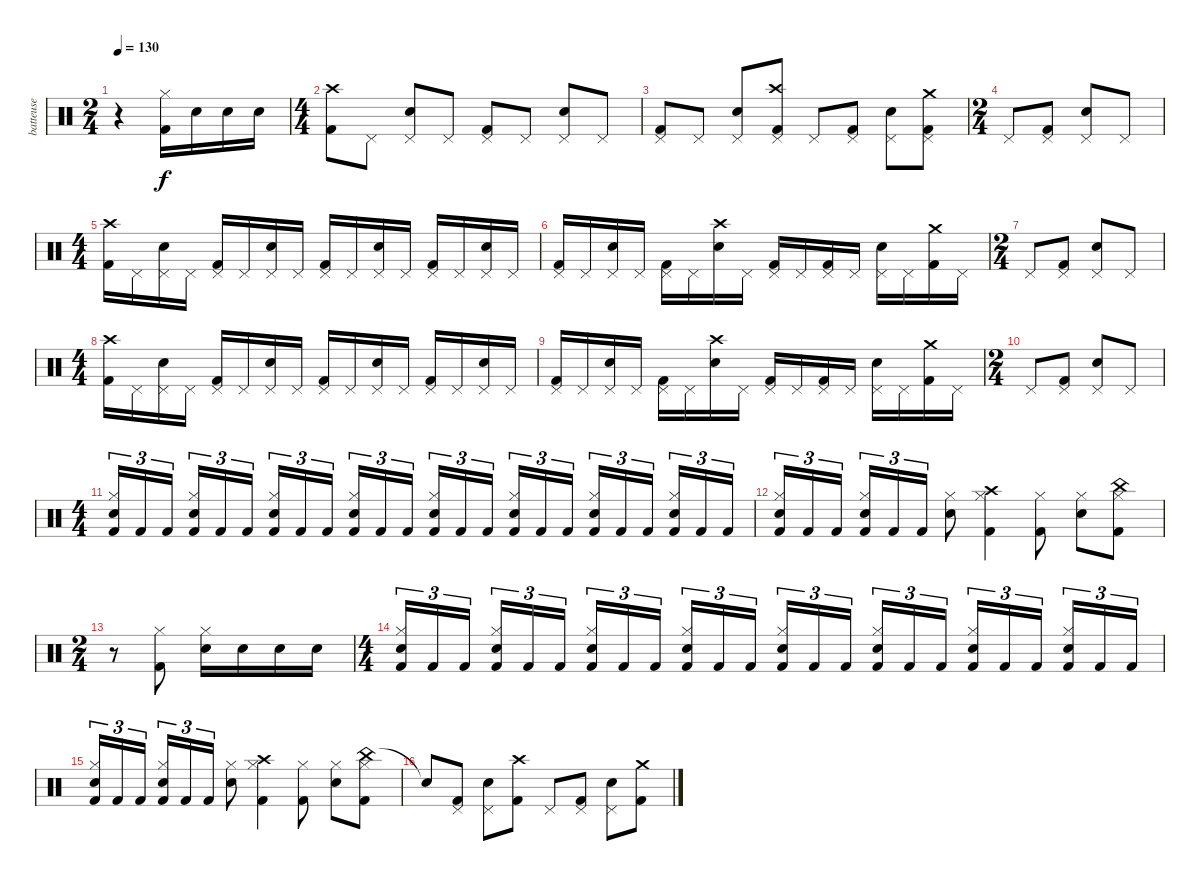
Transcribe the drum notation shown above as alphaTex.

\track ("batteuse" "batteuse") {instrument percussion}
\staff {score}
\articulation defaults
\ts (2 4)
\tempo 130
\clef neutral
\ks c
r.4{dy f} ("Kick (hit) 2" "Hi-Hat (closed)").16 "Snare (hit) 2".16 "Snare (hit) 2".16 "Snare (hit) 2".16 |
\ts (4 4)
("Crash high (hit)" "Kick (hit) 2").8 "Pedal Hi-Hat (hit)".8 ("Snare (hit) 2" "Pedal Hi-Hat (hit)").8 "Pedal Hi-Hat (hit)".8 ("Kick (hit) 2" "Pedal Hi-Hat (hit)").8 "Pedal Hi-Hat (hit)".8 ("Snare (hit) 2" "Pedal Hi-Hat (hit)").8 "Pedal Hi-Hat (hit)".8 |
("Kick (hit) 2" "Pedal Hi-Hat (hit)").8 "Pedal Hi-Hat (hit)".8 ("Snare (hit) 2" "Pedal Hi-Hat (hit)").8 ("Crash high (hit)" "Kick (hit) 2" "Pedal Hi-Hat (hit)").8 "Pedal Hi-Hat (hit)".8 ("Kick (hit) 2" "Pedal Hi-Hat (hit)").8 ("Snare (hit) 2" "Pedal Hi-Hat (hit)").8 ("Crash medium (hit)" "Kick (hit) 2" "Pedal Hi-Hat (hit)").8 |
\ts (2 4)
"Pedal Hi-Hat (hit)".8 ("Kick (hit) 2" "Pedal Hi-Hat (hit)").8 ("Snare (hit) 2" "Pedal Hi-Hat (hit)").8 "Pedal Hi-Hat (hit)".8 |
\ts (4 4)
("Crash high (hit)" "Kick (hit) 2").16 "Pedal Hi-Hat (hit)".16 ("Snare (hit) 2" "Pedal Hi-Hat (hit)").16 "Pedal Hi-Hat (hit)".16 ("Kick (hit) 2" "Pedal Hi-Hat (hit)").16 "Pedal Hi-Hat (hit)".16 ("Snare (hit) 2" "Pedal Hi-Hat (hit)").16 "Pedal Hi-Hat (hit)".16 ("Kick (hit) 2" "Pedal Hi-Hat (hit)").16 "Pedal Hi-Hat (hit)".16 ("Snare (hit) 2" "Pedal Hi-Hat (hit)").16 "Pedal Hi-Hat (hit)".16 ("Kick (hit) 2" "Pedal Hi-Hat (hit)").16 "Pedal Hi-Hat (hit)".16 ("Snare (hit) 2" "Pedal Hi-Hat (hit)").16 "Pedal Hi-Hat (hit)".16 |
("Kick (hit) 2" "Pedal Hi-Hat (hit)").16 "Pedal Hi-Hat (hit)".16 ("Snare (hit) 2" "Pedal Hi-Hat (hit)").16 "Pedal Hi-Hat (hit)".16 ("Kick (hit) 2" "Pedal Hi-Hat (hit)").16 "Pedal Hi-Hat (hit)".16 ("Crash high (hit)" "Snare (hit) 2").16 "Pedal Hi-Hat (hit)".16 ("Kick (hit) 2" "Pedal Hi-Hat (hit)").16 "Pedal Hi-Hat (hit)".16 ("Kick (hit) 2" "Pedal Hi-Hat (hit)").16 "Pedal Hi-Hat (hit)".16 ("Snare (hit) 2" "Pedal Hi-Hat (hit)").16 "Pedal Hi-Hat (hit)".16 ("Crash medium (hit)" "Kick (hit) 2").16 "Pedal Hi-Hat (hit)".16 |
\ts (2 4)
"Pedal Hi-Hat (hit)".8 ("Kick (hit) 2" "Pedal Hi-Hat (hit)").8 ("Snare (hit) 2" "Pedal Hi-Hat (hit)").8 "Pedal Hi-Hat (hit)".8 |
\ts (4 4)
("Crash high (hit)" "Kick (hit) 2").16 "Pedal Hi-Hat (hit)".16 ("Snare (hit) 2" "Pedal Hi-Hat (hit)").16 "Pedal Hi-Hat (hit)".16 ("Kick (hit) 2" "Pedal Hi-Hat (hit)").16 "Pedal Hi-Hat (hit)".16 ("Snare (hit) 2" "Pedal Hi-Hat (hit)").16 "Pedal Hi-Hat (hit)".16 ("Kick (hit) 2" "Pedal Hi-Hat (hit)").16 "Pedal Hi-Hat (hit)".16 ("Snare (hit) 2" "Pedal Hi-Hat (hit)").16 "Pedal Hi-Hat (hit)".16 ("Kick (hit) 2" "Pedal Hi-Hat (hit)").16 "Pedal Hi-Hat (hit)".16 ("Snare (hit) 2" "Pedal Hi-Hat (hit)").16 "Pedal Hi-Hat (hit)".16 |
("Kick (hit) 2" "Pedal Hi-Hat (hit)").16 "Pedal Hi-Hat (hit)".16 ("Snare (hit) 2" "Pedal Hi-Hat (hit)").16 "Pedal Hi-Hat (hit)".16 ("Kick (hit) 2" "Pedal Hi-Hat (hit)").16 "Pedal Hi-Hat (hit)".16 ("Crash high (hit)" "Snare (hit) 2").16 "Pedal Hi-Hat (hit)".16 ("Kick (hit) 2" "Pedal Hi-Hat (hit)").16 "Pedal Hi-Hat (hit)".16 ("Kick (hit) 2" "Pedal Hi-Hat (hit)").16 "Pedal Hi-Hat (hit)".16 ("Snare (hit) 2" "Pedal Hi-Hat (hit)").16 "Pedal Hi-Hat (hit)".16 ("Crash medium (hit)" "Kick (hit) 2").16 "Pedal Hi-Hat (hit)".16 |
\ts (2 4)
"Pedal Hi-Hat (hit)".8 ("Kick (hit) 2" "Pedal Hi-Hat (hit)").8 ("Snare (hit) 2" "Pedal Hi-Hat (hit)").8 "Pedal Hi-Hat (hit)".8 |
\ts (4 4)
("Snare (hit) 2" "Kick (hit) 2" "Hi-Hat (closed)").16{tu (3 2)} "Kick (hit) 2".16{tu (3 2)} "Kick (hit) 2".16{tu (3 2)} ("Snare (hit) 2" "Kick (hit) 2" "Hi-Hat (closed)").16{tu (3 2)} "Kick (hit) 2".16{tu (3 2)} "Kick (hit) 2".16{tu (3 2)} ("Snare (hit) 2" "Kick (hit) 2" "Hi-Hat (closed)").16{tu (3 2)} "Kick (hit) 2".16{tu (3 2)} "Kick (hit) 2".16{tu (3 2)} ("Snare (hit) 2" "Kick (hit) 2" "Hi-Hat (closed)").16{tu (3 2)} "Kick (hit) 2".16{tu (3 2)} "Kick (hit) 2".16{tu (3 2)} ("Snare (hit) 2" "Kick (hit) 2" "Hi-Hat (closed)").16{tu (3 2)} "Kick (hit) 2".16{tu (3 2)} "Kick (hit) 2".16{tu (3 2)} ("Snare (hit) 2" "Kick (hit) 2" "Hi-Hat (closed)").16{tu (3 2)} "Kick (hit) 2".16{tu (3 2)} "Kick (hit) 2".16{tu (3 2)} ("Snare (hit) 2" "Kick (hit) 2" "Hi-Hat (closed)").16{tu (3 2)} "Kick (hit) 2".16{tu (3 2)} "Kick (hit) 2".16{tu (3 2)} ("Snare (hit) 2" "Kick (hit) 2" "Hi-Hat (closed)").16{tu (3 2)} "Kick (hit) 2".16{tu (3 2)} "Kick (hit) 2".16{tu (3 2)} |
("Snare (hit) 2" "Kick (hit) 2" "Hi-Hat (closed)").16{tu (3 2)} "Kick (hit) 2".16{tu (3 2)} "Kick (hit) 2".16{tu (3 2)} ("Snare (hit) 2" "Kick (hit) 2" "Hi-Hat (closed)").16{tu (3 2)} "Kick (hit) 2".16{tu (3 2)} "Kick (hit) 2".16{tu (3 2)} ("Snare (hit) 2" "Hi-Hat (closed)").8 ("Crash high (hit)" "Kick (hit) 2" "Hi-Hat (closed)").4 ("Kick (hit) 2" "Hi-Hat (closed)").8 ("Snare (hit) 2" "Hi-Hat (closed)").8 ("China (hit)" "Kick (hit) 2" "Hi-Hat (closed)").8 |
\ts (2 4)
r.8 ("Kick (hit) 2" "Hi-Hat (closed)").8 ("Snare (hit) 2" "Hi-Hat (closed)").16 "Snare (hit) 2".16 "Snare (hit) 2".16 "Snare (hit) 2".16 |
\ts (4 4)
("Snare (hit) 2" "Kick (hit) 2" "Hi-Hat (closed)").16{tu (3 2)} "Kick (hit) 2".16{tu (3 2)} "Kick (hit) 2".16{tu (3 2)} ("Snare (hit) 2" "Kick (hit) 2" "Hi-Hat (closed)").16{tu (3 2)} "Kick (hit) 2".16{tu (3 2)} "Kick (hit) 2".16{tu (3 2)} ("Snare (hit) 2" "Kick (hit) 2" "Hi-Hat (closed)").16{tu (3 2)} "Kick (hit) 2".16{tu (3 2)} "Kick (hit) 2".16{tu (3 2)} ("Snare (hit) 2" "Kick (hit) 2" "Hi-Hat (closed)").16{tu (3 2)} "Kick (hit) 2".16{tu (3 2)} "Kick (hit) 2".16{tu (3 2)} ("Snare (hit) 2" "Kick (hit) 2" "Hi-Hat (closed)").16{tu (3 2)} "Kick (hit) 2".16{tu (3 2)} "Kick (hit) 2".16{tu (3 2)} ("Snare (hit) 2" "Kick (hit) 2" "Hi-Hat (closed)").16{tu (3 2)} "Kick (hit) 2".16{tu (3 2)} "Kick (hit) 2".16{tu (3 2)} ("Snare (hit) 2" "Kick (hit) 2" "Hi-Hat (closed)").16{tu (3 2)} "Kick (hit) 2".16{tu (3 2)} "Kick (hit) 2".16{tu (3 2)} ("Snare (hit) 2" "Kick (hit) 2" "Hi-Hat (closed)").16{tu (3 2)} "Kick (hit) 2".16{tu (3 2)} "Kick (hit) 2".16{tu (3 2)} |
("Snare (hit) 2" "Kick (hit) 2" "Hi-Hat (closed)").16{tu (3 2)} "Kick (hit) 2".16{tu (3 2)} "Kick (hit) 2".16{tu (3 2)} ("Snare (hit) 2" "Kick (hit) 2" "Hi-Hat (closed)").16{tu (3 2)} "Kick (hit) 2".16{tu (3 2)} "Kick (hit) 2".16{tu (3 2)} ("Snare (hit) 2" "Hi-Hat (closed)").8 ("Crash high (hit)" "Kick (hit) 2" "Hi-Hat (closed)").4 ("Kick (hit) 2" "Hi-Hat (closed)").8 ("Snare (hit) 2" "Hi-Hat (closed)").8 ("China (hit)" "Kick (hit) 2" "Hi-Hat (closed)").8 |
"Snare (hit)"{t}.8 ("Kick (hit) 2" "Pedal Hi-Hat (hit)").8 ("Snare (hit) 2" "Pedal Hi-Hat (hit)").8 ("Crash high (hit)" "Kick (hit) 2").8 "Pedal Hi-Hat (hit)".8 ("Kick (hit) 2" "Pedal Hi-Hat (hit)").8 ("Snare (hit) 2" "Pedal Hi-Hat (hit)").8 ("Crash medium (hit)" "Kick (hit) 2").8
